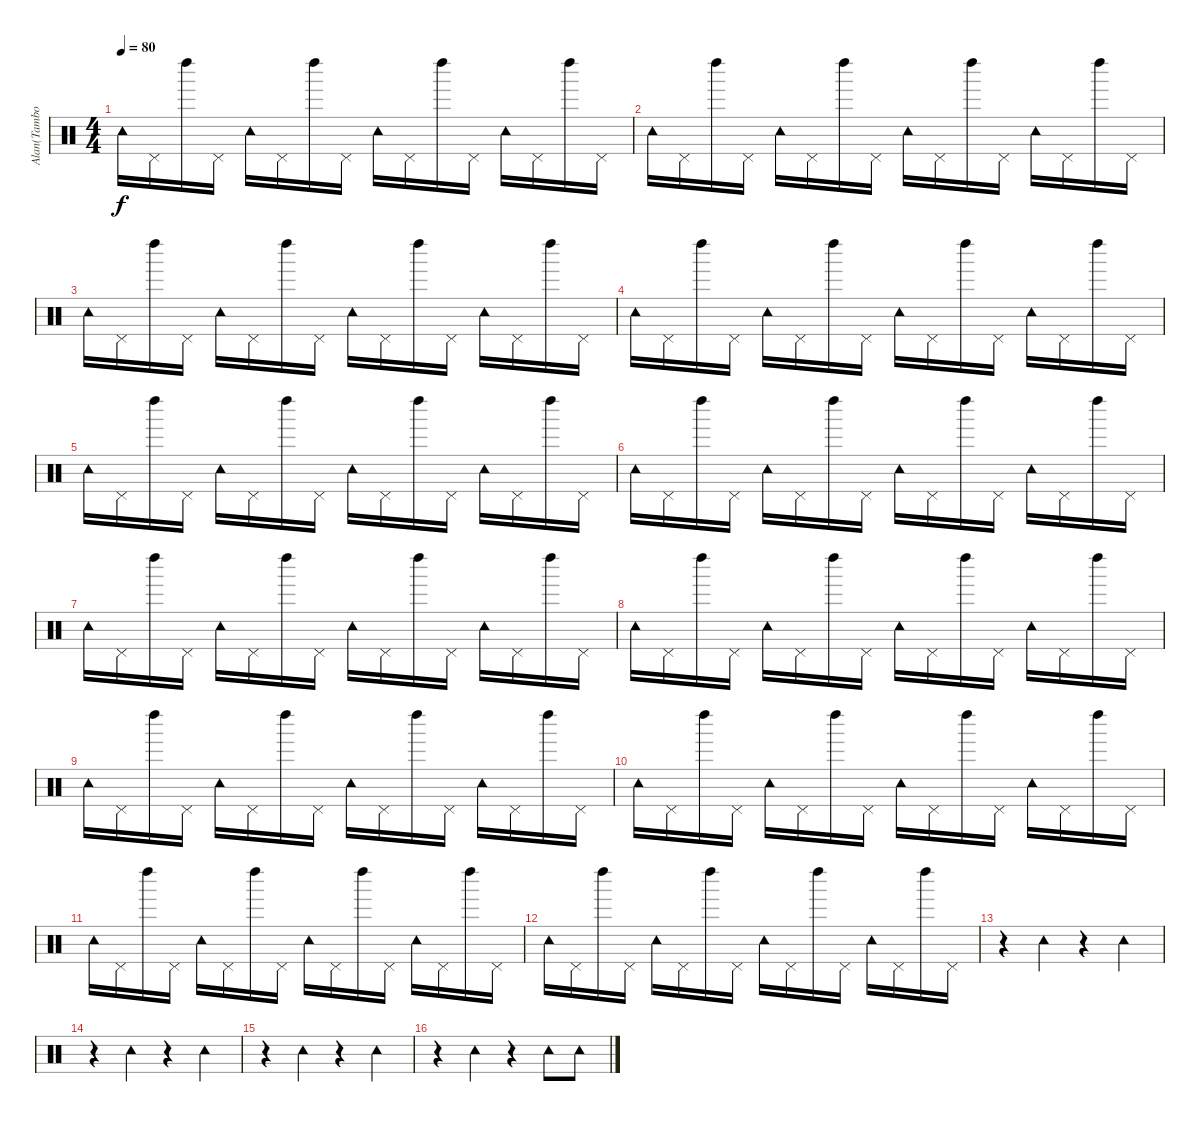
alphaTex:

\track ("Alan(Tambourine)" "Alan(Tambo") {instrument percussion}
\staff {score}
\articulation defaults
\ts (4 4)
\tempo 80
\clef neutral
\ks c "Tambourine (hit)".16{dy f} "Pedal Hi-Hat (hit)".16 "Left Maraca (hit)".16 "Pedal Hi-Hat (hit)".16 "Tambourine (hit)".16 "Pedal Hi-Hat (hit)".16 "Left Maraca (hit)".16 "Pedal Hi-Hat (hit)".16 "Tambourine (hit)".16 "Pedal Hi-Hat (hit)".16 "Left Maraca (hit)".16 "Pedal Hi-Hat (hit)".16 "Tambourine (hit)".16 "Pedal Hi-Hat (hit)".16 "Left Maraca (hit)".16 "Pedal Hi-Hat (hit)".16
|
"Tambourine (hit)".16 "Pedal Hi-Hat (hit)".16 "Left Maraca (hit)".16 "Pedal Hi-Hat (hit)".16 "Tambourine (hit)".16 "Pedal Hi-Hat (hit)".16 "Left Maraca (hit)".16 "Pedal Hi-Hat (hit)".16 "Tambourine (hit)".16 "Pedal Hi-Hat (hit)".16 "Left Maraca (hit)".16 "Pedal Hi-Hat (hit)".16 "Tambourine (hit)".16 "Pedal Hi-Hat (hit)".16 "Left Maraca (hit)".16 "Pedal Hi-Hat (hit)".16 |
"Tambourine (hit)".16 "Pedal Hi-Hat (hit)".16 "Left Maraca (hit)".16 "Pedal Hi-Hat (hit)".16 "Tambourine (hit)".16 "Pedal Hi-Hat (hit)".16 "Left Maraca (hit)".16 "Pedal Hi-Hat (hit)".16 "Tambourine (hit)".16 "Pedal Hi-Hat (hit)".16 "Left Maraca (hit)".16 "Pedal Hi-Hat (hit)".16 "Tambourine (hit)".16 "Pedal Hi-Hat (hit)".16 "Left Maraca (hit)".16 "Pedal Hi-Hat (hit)".16 |
"Tambourine (hit)".16 "Pedal Hi-Hat (hit)".16 "Left Maraca (hit)".16 "Pedal Hi-Hat (hit)".16 "Tambourine (hit)".16 "Pedal Hi-Hat (hit)".16 "Left Maraca (hit)".16 "Pedal Hi-Hat (hit)".16 "Tambourine (hit)".16 "Pedal Hi-Hat (hit)".16 "Left Maraca (hit)".16 "Pedal Hi-Hat (hit)".16 "Tambourine (hit)".16 "Pedal Hi-Hat (hit)".16 "Left Maraca (hit)".16 "Pedal Hi-Hat (hit)".16 |
"Tambourine (hit)".16 "Pedal Hi-Hat (hit)".16 "Left Maraca (hit)".16 "Pedal Hi-Hat (hit)".16 "Tambourine (hit)".16 "Pedal Hi-Hat (hit)".16 "Left Maraca (hit)".16 "Pedal Hi-Hat (hit)".16 "Tambourine (hit)".16 "Pedal Hi-Hat (hit)".16 "Left Maraca (hit)".16 "Pedal Hi-Hat (hit)".16 "Tambourine (hit)".16 "Pedal Hi-Hat (hit)".16 "Left Maraca (hit)".16 "Pedal Hi-Hat (hit)".16 |
"Tambourine (hit)".16 "Pedal Hi-Hat (hit)".16 "Left Maraca (hit)".16 "Pedal Hi-Hat (hit)".16 "Tambourine (hit)".16 "Pedal Hi-Hat (hit)".16 "Left Maraca (hit)".16 "Pedal Hi-Hat (hit)".16 "Tambourine (hit)".16 "Pedal Hi-Hat (hit)".16 "Left Maraca (hit)".16 "Pedal Hi-Hat (hit)".16 "Tambourine (hit)".16 "Pedal Hi-Hat (hit)".16 "Left Maraca (hit)".16 "Pedal Hi-Hat (hit)".16 |
"Tambourine (hit)".16 "Pedal Hi-Hat (hit)".16 "Left Maraca (hit)".16 "Pedal Hi-Hat (hit)".16 "Tambourine (hit)".16 "Pedal Hi-Hat (hit)".16 "Left Maraca (hit)".16 "Pedal Hi-Hat (hit)".16 "Tambourine (hit)".16 "Pedal Hi-Hat (hit)".16 "Left Maraca (hit)".16 "Pedal Hi-Hat (hit)".16 "Tambourine (hit)".16 "Pedal Hi-Hat (hit)".16 "Left Maraca (hit)".16 "Pedal Hi-Hat (hit)".16 |
"Tambourine (hit)".16 "Pedal Hi-Hat (hit)".16 "Left Maraca (hit)".16 "Pedal Hi-Hat (hit)".16 "Tambourine (hit)".16 "Pedal Hi-Hat (hit)".16 "Left Maraca (hit)".16 "Pedal Hi-Hat (hit)".16 "Tambourine (hit)".16 "Pedal Hi-Hat (hit)".16 "Left Maraca (hit)".16 "Pedal Hi-Hat (hit)".16 "Tambourine (hit)".16 "Pedal Hi-Hat (hit)".16 "Left Maraca (hit)".16 "Pedal Hi-Hat (hit)".16 |
"Tambourine (hit)".16 "Pedal Hi-Hat (hit)".16 "Left Maraca (hit)".16 "Pedal Hi-Hat (hit)".16 "Tambourine (hit)".16 "Pedal Hi-Hat (hit)".16 "Left Maraca (hit)".16 "Pedal Hi-Hat (hit)".16 "Tambourine (hit)".16 "Pedal Hi-Hat (hit)".16 "Left Maraca (hit)".16 "Pedal Hi-Hat (hit)".16 "Tambourine (hit)".16 "Pedal Hi-Hat (hit)".16 "Left Maraca (hit)".16 "Pedal Hi-Hat (hit)".16 |
"Tambourine (hit)".16 "Pedal Hi-Hat (hit)".16 "Left Maraca (hit)".16 "Pedal Hi-Hat (hit)".16 "Tambourine (hit)".16 "Pedal Hi-Hat (hit)".16 "Left Maraca (hit)".16 "Pedal Hi-Hat (hit)".16 "Tambourine (hit)".16 "Pedal Hi-Hat (hit)".16 "Left Maraca (hit)".16 "Pedal Hi-Hat (hit)".16 "Tambourine (hit)".16 "Pedal Hi-Hat (hit)".16 "Left Maraca (hit)".16 "Pedal Hi-Hat (hit)".16 |
"Tambourine (hit)".16 "Pedal Hi-Hat (hit)".16 "Left Maraca (hit)".16 "Pedal Hi-Hat (hit)".16 "Tambourine (hit)".16 "Pedal Hi-Hat (hit)".16 "Left Maraca (hit)".16 "Pedal Hi-Hat (hit)".16 "Tambourine (hit)".16 "Pedal Hi-Hat (hit)".16 "Left Maraca (hit)".16 "Pedal Hi-Hat (hit)".16 "Tambourine (hit)".16 "Pedal Hi-Hat (hit)".16 "Left Maraca (hit)".16 "Pedal Hi-Hat (hit)".16 |
"Tambourine (hit)".16 "Pedal Hi-Hat (hit)".16 "Left Maraca (hit)".16 "Pedal Hi-Hat (hit)".16 "Tambourine (hit)".16 "Pedal Hi-Hat (hit)".16 "Left Maraca (hit)".16 "Pedal Hi-Hat (hit)".16 "Tambourine (hit)".16 "Pedal Hi-Hat (hit)".16 "Left Maraca (hit)".16 "Pedal Hi-Hat (hit)".16 "Tambourine (hit)".16 "Pedal Hi-Hat (hit)".16 "Left Maraca (hit)".16 "Pedal Hi-Hat (hit)".16 |
r.4 "Tambourine (hit)".4 r.4 "Tambourine (hit)".4 |
r.4 "Tambourine (hit)".4 r.4 "Tambourine (hit)".4 |
r.4 "Tambourine (hit)".4 r.4 "Tambourine (hit)".4 |
r.4 "Tambourine (hit)".4 r.4 "Tambourine (hit)".8 "Tambourine (hit)".8
